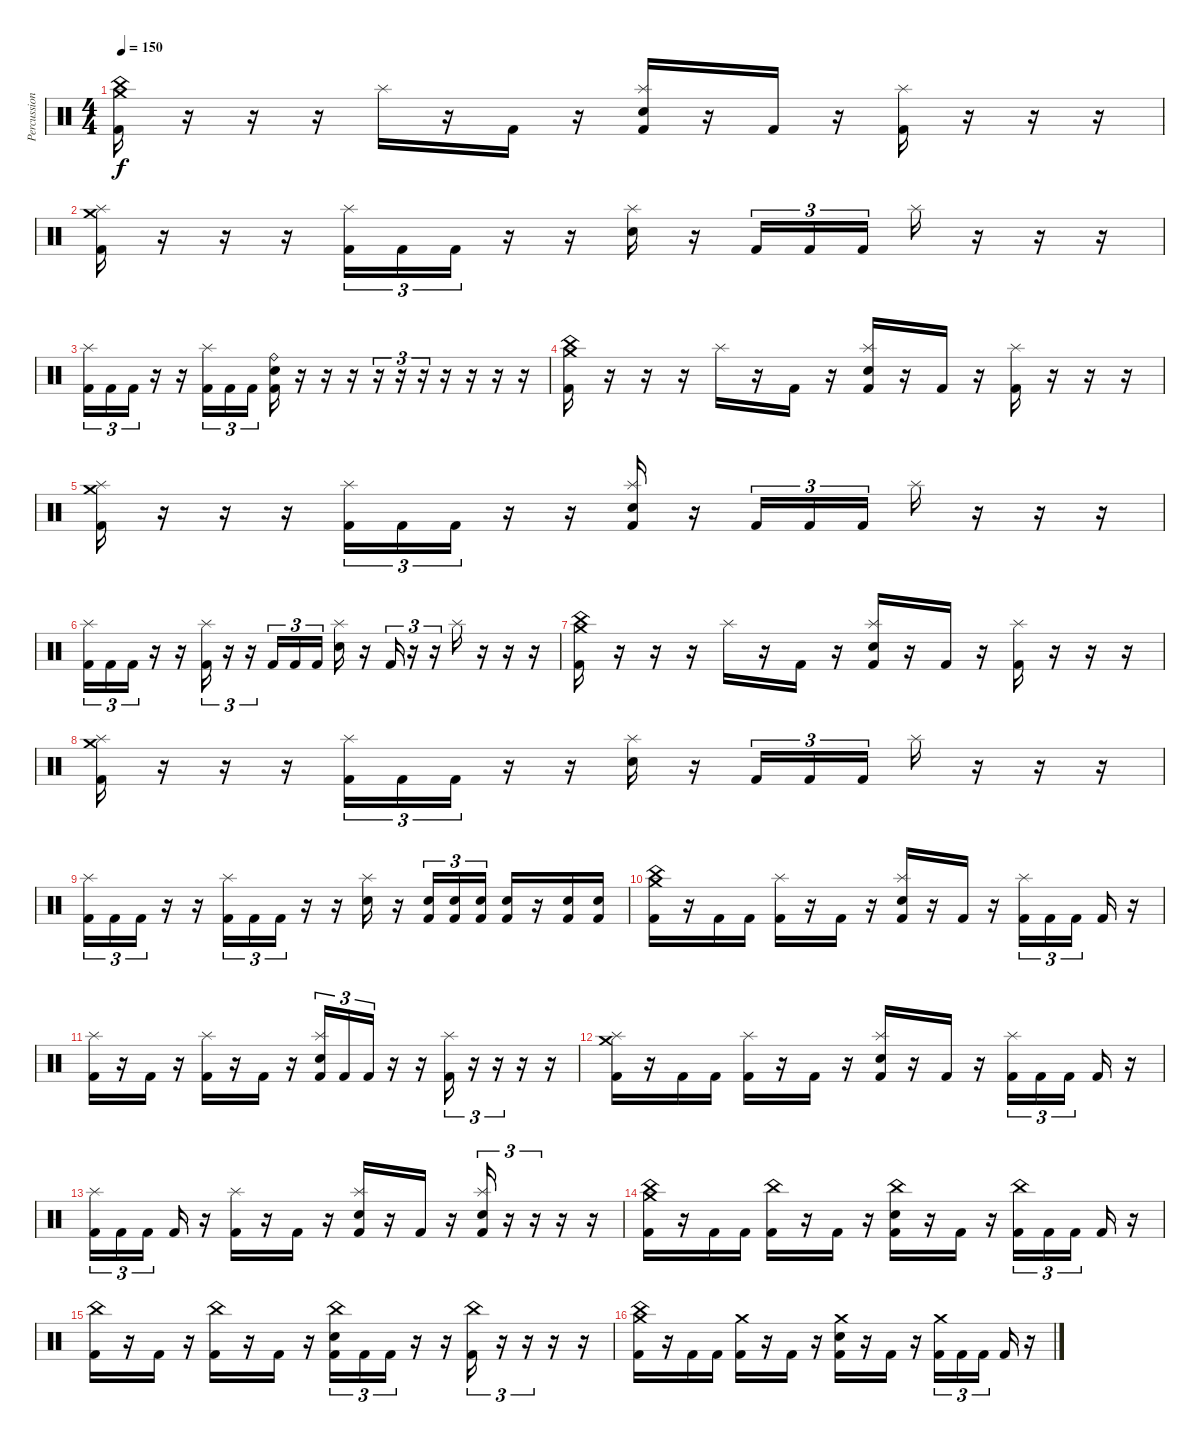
\track ("Percussion" "Percussion") {instrument percussion}
\staff {score}
\articulation defaults
\ts (4 4)
\tempo 150
\clef neutral
\ks c
("China (hit)" "Crash medium (hit)" "Kick (hit) 2").16{dy f} r.16 r.16 r.16 "Splash (hit)".16 r.16 "Kick (hit) 2".16 r.16 ("Splash (hit)" "Electric Snare (hit)" "Kick (hit) 2").16 r.16 "Kick (hit) 2".16 r.16 ("Splash (hit)" "Kick (hit) 2").16 r.16 r.16 r.16 |
("Splash (hit)" "Crash medium (hit)" "Kick (hit) 2").16 r.16 r.16 r.16 ("Splash (hit)" "Kick (hit) 2").16{tu (3 2)} "Kick (hit) 2".16{tu (3 2)} "Kick (hit) 2".16{tu (3 2)} r.16 r.16 ("Splash (hit)" "Electric Snare (hit)").16 r.16 "Kick (hit) 2".16{tu (3 2)} "Kick (hit) 2".16{tu (3 2)} "Kick (hit) 2".16{tu (3 2)} "Splash (hit)".16 r.16 r.16 r.16 |
("Splash (hit)" "Kick (hit) 2").16{tu (3 2)} "Kick (hit) 2".16{tu (3 2)} "Kick (hit) 2".16{tu (3 2)} r.16 r.16 ("Splash (hit)" "Kick (hit) 2").16{tu (3 2)} "Kick (hit) 2".16{tu (3 2)} "Kick (hit) 2".16{tu (3 2) beam splitsecondary} ("Ride (bell)" "Electric Snare (hit)" "Kick (hit) 2").16 r.16 r.16 r.16 r.16{tu (3 2)} r.16{tu (3 2)} r.16{tu (3 2)} r.16 r.16 r.16 r.16 |
("China (hit)" "Crash medium (hit)" "Kick (hit) 2").16 r.16 r.16 r.16 "Splash (hit)".16 r.16 "Kick (hit) 2".16 r.16 ("Splash (hit)" "Electric Snare (hit)" "Kick (hit) 2").16 r.16 "Kick (hit) 2".16 r.16 ("Splash (hit)" "Kick (hit) 2").16 r.16 r.16 r.16 |
("Splash (hit)" "Crash medium (hit)" "Kick (hit) 2").16 r.16 r.16 r.16 ("Splash (hit)" "Kick (hit) 2").16{tu (3 2)} "Kick (hit) 2".16{tu (3 2)} "Kick (hit) 2".16{tu (3 2)} r.16 r.16 ("Splash (hit)" "Electric Snare (hit)" "Kick (hit) 2").16 r.16 "Kick (hit) 2".16{tu (3 2)} "Kick (hit) 2".16{tu (3 2)} "Kick (hit) 2".16{tu (3 2)} "Splash (hit)".16 r.16 r.16 r.16 |
("Splash (hit)" "Kick (hit) 2").16{tu (3 2)} "Kick (hit) 2".16{tu (3 2)} "Kick (hit) 2".16{tu (3 2)} r.16 r.16 ("Splash (hit)" "Kick (hit) 2").16{tu (3 2)} r.16{tu (3 2)} r.16{tu (3 2)} "Kick (hit) 2".16{tu (3 2)} "Kick (hit) 2".16{tu (3 2)} "Kick (hit) 2".16{tu (3 2)} ("Splash (hit)" "Electric Snare (hit)").16 r.16 "Kick (hit) 2".16{tu (3 2)} r.16{tu (3 2)} r.16{tu (3 2)} "Splash (hit)".16 r.16 r.16 r.16 |
("China (hit)" "Crash medium (hit)" "Kick (hit) 2").16 r.16 r.16 r.16 "Splash (hit)".16 r.16 "Kick (hit) 2".16 r.16 ("Splash (hit)" "Electric Snare (hit)" "Kick (hit) 2").16 r.16 "Kick (hit) 2".16 r.16 ("Splash (hit)" "Kick (hit) 2").16 r.16 r.16 r.16 |
("Splash (hit)" "Crash medium (hit)" "Kick (hit) 2").16 r.16 r.16 r.16 ("Splash (hit)" "Kick (hit) 2").16{tu (3 2)} "Kick (hit) 2".16{tu (3 2)} "Kick (hit) 2".16{tu (3 2)} r.16 r.16 ("Splash (hit)" "Electric Snare (hit)").16 r.16 "Kick (hit) 2".16{tu (3 2)} "Kick (hit) 2".16{tu (3 2)} "Kick (hit) 2".16{tu (3 2)} "Splash (hit)".16 r.16 r.16 r.16 |
("Splash (hit)" "Kick (hit) 2").16{tu (3 2)} "Kick (hit) 2".16{tu (3 2)} "Kick (hit) 2".16{tu (3 2)} r.16 r.16 ("Splash (hit)" "Kick (hit) 2").16{tu (3 2)} "Kick (hit) 2".16{tu (3 2)} "Kick (hit) 2".16{tu (3 2)} r.16 r.16 ("Splash (hit)" "Electric Snare (hit)").16 r.16 ("Electric Snare (hit)" "Kick (hit) 2").16{tu (3 2)} ("Electric Snare (hit)" "Kick (hit) 2").16{tu (3 2)} ("Electric Snare (hit)" "Kick (hit) 2").16{tu (3 2)} ("Electric Snare (hit)" "Kick (hit) 2").16 r.16 ("Electric Snare (hit)" "Kick (hit) 2").16 ("Electric Snare (hit)" "Kick (hit) 2").16 |
("China (hit)" "Crash medium (hit)" "Kick (hit) 2").16 r.16 "Kick (hit) 2".16 "Kick (hit) 2".16 ("Splash (hit)" "Kick (hit) 2").16 r.16 "Kick (hit) 2".16 r.16 ("Splash (hit)" "Electric Snare (hit)" "Kick (hit) 2").16 r.16 "Kick (hit) 2".16 r.16 ("Splash (hit)" "Kick (hit) 2").16{tu (3 2)} "Kick (hit) 2".16{tu (3 2)} "Kick (hit) 2".16{tu (3 2) beam splitsecondary} "Kick (hit) 2".16 r.16 |
("Splash (hit)" "Kick (hit) 2").16 r.16 "Kick (hit) 2".16 r.16 ("Splash (hit)" "Kick (hit) 2").16 r.16 "Kick (hit) 2".16 r.16 ("Splash (hit)" "Electric Snare (hit)" "Kick (hit) 2").16{tu (3 2)} "Kick (hit) 2".16{tu (3 2)} "Kick (hit) 2".16{tu (3 2)} r.16 r.16 ("Splash (hit)" "Kick (hit) 2").16{tu (3 2)} r.16{tu (3 2)} r.16{tu (3 2)} r.16 r.16 |
("Splash (hit)" "Crash medium (hit)" "Kick (hit) 2").16 r.16 "Kick (hit) 2".16 "Kick (hit) 2".16 ("Splash (hit)" "Kick (hit) 2").16 r.16 "Kick (hit) 2".16 r.16 ("Splash (hit)" "Electric Snare (hit)" "Kick (hit) 2").16 r.16 "Kick (hit) 2".16 r.16 ("Splash (hit)" "Kick (hit) 2").16{tu (3 2)} "Kick (hit) 2".16{tu (3 2)} "Kick (hit) 2".16{tu (3 2) beam splitsecondary} "Kick (hit) 2".16 r.16 |
("Splash (hit)" "Kick (hit) 2").16{tu (3 2)} "Kick (hit) 2".16{tu (3 2)} "Kick (hit) 2".16{tu (3 2) beam splitsecondary} "Kick (hit) 2".16 r.16 ("Splash (hit)" "Kick (hit) 2").16 r.16 "Kick (hit) 2".16 r.16 ("Splash (hit)" "Electric Snare (hit)" "Kick (hit) 2").16 r.16 "Kick (hit) 2".16 r.16 ("Splash (hit)" "Electric Snare (hit)" "Kick (hit) 2").16{tu (3 2)} r.16{tu (3 2)} r.16{tu (3 2)} r.16 r.16 |
("China (hit)" "Crash medium (hit)" "Kick (hit) 2").16 r.16 "Kick (hit) 2".16 "Kick (hit) 2".16 ("China (hit)" "Kick (hit) 2").16 r.16 "Kick (hit) 2".16 r.16 ("China (hit)" "Electric Snare (hit)" "Kick (hit) 2").16 r.16 "Kick (hit) 2".16 r.16 ("China (hit)" "Kick (hit) 2").16{tu (3 2)} "Kick (hit) 2".16{tu (3 2)} "Kick (hit) 2".16{tu (3 2) beam splitsecondary} "Kick (hit) 2".16 r.16 |
("China (hit)" "Kick (hit) 2").16 r.16 "Kick (hit) 2".16 r.16 ("China (hit)" "Kick (hit) 2").16 r.16 "Kick (hit) 2".16 r.16 ("China (hit)" "Electric Snare (hit)" "Kick (hit) 2").16{tu (3 2)} "Kick (hit) 2".16{tu (3 2)} "Kick (hit) 2".16{tu (3 2)} r.16 r.16 ("China (hit)" "Kick (hit) 2").16{tu (3 2)} r.16{tu (3 2)} r.16{tu (3 2)} r.16 r.16 |
("China (hit)" "Crash medium (hit)" "Kick (hit) 2").16 r.16 "Kick (hit) 2".16 "Kick (hit) 2".16 ("Crash medium (hit)" "Kick (hit) 2").16 r.16 "Kick (hit) 2".16 r.16 ("Crash medium (hit)" "Electric Snare (hit)" "Kick (hit) 2").16 r.16 "Kick (hit) 2".16 r.16 ("Crash medium (hit)" "Kick (hit) 2").16{tu (3 2)} "Kick (hit) 2".16{tu (3 2)} "Kick (hit) 2".16{tu (3 2) beam splitsecondary} "Kick (hit) 2".16 r.16
